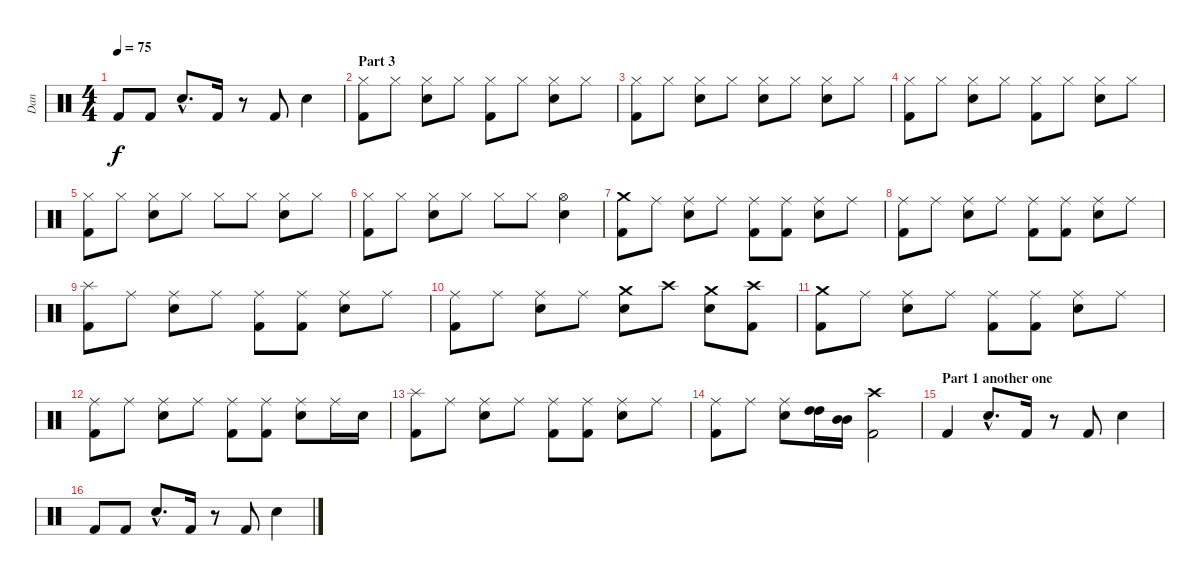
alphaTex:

\track ("Dan" "Dan") {instrument percussion}
\staff {score}
\articulation defaults
\ts (4 4)
\tempo 75
\clef neutral
\ks c "Kick (hit) 2".8{dy f} "Kick (hit) 2".8 "Snare (hit) 2"{hac}.8{d} "Kick (hit) 2".16
r.8 "Kick (hit) 2".8 "Snare (hit) 2".4 |
\section ("" "Part 3")
("Hi-Hat (closed)" "Kick (hit) 2").8 "Hi-Hat (closed)".8 ("Hi-Hat (closed)" "Electric Snare (hit)").8 "Hi-Hat (closed)".8 ("Hi-Hat (closed)" "Kick (hit) 2").8 "Hi-Hat (closed)".8 ("Hi-Hat (closed)" "Electric Snare (hit)").8 "Hi-Hat (closed)".8 |
("Hi-Hat (closed)" "Kick (hit) 2").8 "Hi-Hat (closed)".8 ("Hi-Hat (closed)" "Electric Snare (hit)").8 "Hi-Hat (closed)".8 ("Hi-Hat (closed)" "Electric Snare (hit)").8 "Hi-Hat (closed)".8 ("Hi-Hat (closed)" "Electric Snare (hit)").8 "Hi-Hat (closed)".8 |
("Hi-Hat (closed)" "Kick (hit) 2").8 "Hi-Hat (closed)".8 ("Hi-Hat (closed)" "Electric Snare (hit)").8 "Hi-Hat (closed)".8 ("Hi-Hat (closed)" "Kick (hit) 2").8 "Hi-Hat (closed)".8 ("Hi-Hat (closed)" "Electric Snare (hit)").8 "Hi-Hat (closed)".8 |
("Hi-Hat (closed)" "Kick (hit) 2").8 "Hi-Hat (closed)".8 ("Hi-Hat (closed)" "Electric Snare (hit)").8 "Hi-Hat (closed)".8 "Hi-Hat (closed)".8 "Hi-Hat (closed)".8 ("Hi-Hat (closed)" "Electric Snare (hit)").8 "Hi-Hat (closed)".8 |
("Hi-Hat (closed)" "Kick (hit) 2").8 "Hi-Hat (closed)".8 ("Hi-Hat (closed)" "Electric Snare (hit)").8 "Hi-Hat (closed)".8 "Hi-Hat (closed)".8 "Hi-Hat (closed)".8 ("Hi-Hat (open)" "Electric Snare (hit)").4 |
("Crash medium (hit)" "Kick (hit) 2").8 "Ride (middle)".8 ("Ride (middle)" "Snare (hit) 2").8 "Ride (middle)".8 ("Ride (middle)" "Kick (hit) 2").8 ("Ride (middle)" "Kick (hit) 2").8 ("Ride (middle)" "Snare (hit) 2").8 "Ride (middle)".8 |
("Ride (middle)" "Kick (hit) 2").8 "Ride (middle)".8 ("Ride (middle)" "Snare (hit) 2").8 "Ride (middle)".8 ("Ride (middle)" "Kick (hit) 2").8 ("Ride (middle)" "Kick (hit) 2").8 ("Ride (middle)" "Snare (hit) 2").8 "Ride (middle)".8 |
("Splash (hit)" "Kick (hit) 2").8 "Ride (middle)".8 ("Ride (middle)" "Snare (hit) 2").8 "Ride (middle)".8 ("Ride (middle)" "Kick (hit) 2").8 ("Ride (middle)" "Kick (hit) 2").8 ("Ride (middle)" "Snare (hit) 2").8 "Ride (middle)".8 |
("Ride (middle)" "Kick (hit) 2").8 "Ride (middle)".8 ("Ride (middle)" "Snare (hit) 2").8 "Ride (middle)".8 ("Crash medium (hit)" "Snare (hit) 2").8 "Crash high (hit)".8 ("Crash medium (hit)" "Snare (hit) 2").8 ("Crash high (hit)" "Kick (hit) 2").8 |
("Crash medium (hit)" "Kick (hit) 2").8 "Ride (middle)".8 ("Ride (middle)" "Snare (hit) 2").8 "Ride (middle)".8 ("Ride (middle)" "Kick (hit) 2").8 ("Ride (middle)" "Kick (hit) 2").8 ("Ride (middle)" "Snare (hit) 2").8 "Ride (middle)".8 |
("Ride (middle)" "Kick (hit) 2").8 "Ride (middle)".8 ("Ride (middle)" "Snare (hit) 2").8 "Ride (middle)".8 ("Ride (middle)" "Kick (hit) 2").8 ("Ride (middle)" "Kick (hit) 2").8 ("Ride (middle)" "Snare (hit) 2").8 "Ride (middle)".16 "Snare (hit) 2".16 |
("Splash (hit)" "Kick (hit) 2").8 "Ride (middle)".8 ("Ride (middle)" "Snare (hit) 2").8 "Ride (middle)".8 ("Ride (middle)" "Kick (hit) 2").8 ("Ride (middle)" "Kick (hit) 2").8 ("Ride (middle)" "Snare (hit) 2").8 "Ride (middle)".8 |
("Ride (middle)" "Kick (hit) 2").8 "Ride (middle)".8 ("Ride (middle)" "Snare (hit) 2").8 ("High Tom (hit)" "High Tom (hit)").16 ("Mid Tom (hit)" "Mid Tom (hit)").16 ("Crash high (hit)" "Kick (hit) 2").2 |
\section ("" "Part 1 another one")
"Kick (hit) 2".4 "Snare (hit) 2"{hac}.8{d} "Kick (hit) 2".16 r.8 "Kick (hit) 2".8 "Snare (hit) 2".4 |
"Kick (hit) 2".8 "Kick (hit) 2".8 "Snare (hit) 2"{hac}.8{d} "Kick (hit) 2".16 r.8 "Kick (hit) 2".8 "Snare (hit) 2".4
